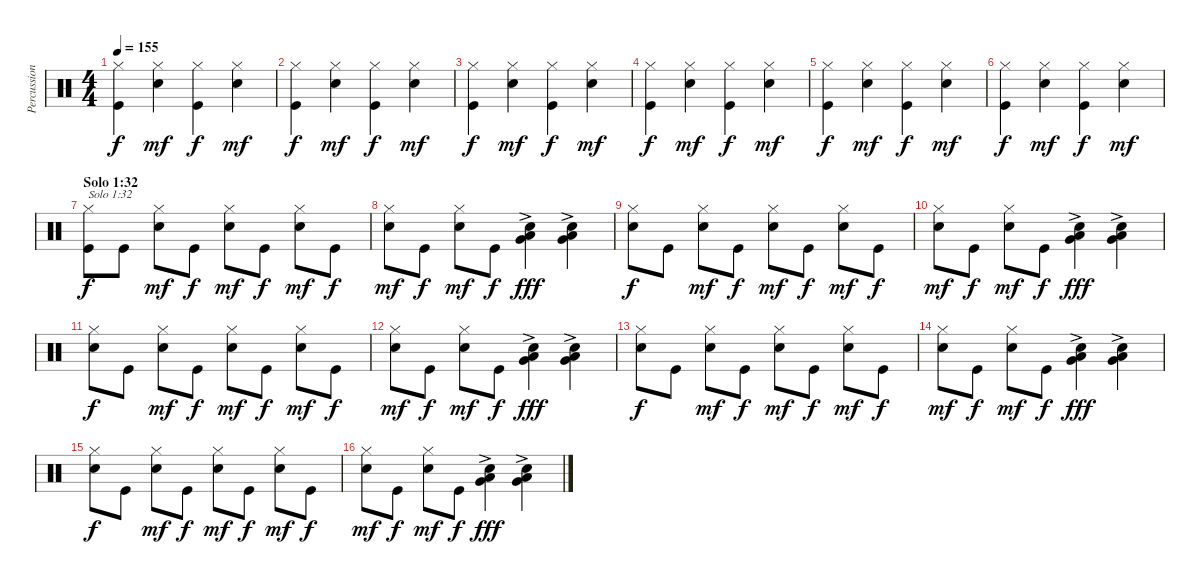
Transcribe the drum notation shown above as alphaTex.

\track ("Percussion" "Percussion") {instrument percussion}
\staff {score}
\articulation defaults
\ts (4 4)
\tempo 155
\clef neutral
\ks c
("Kick (hit)" "Hi-Hat (closed)").4{dy f} ("Electric Snare (hit)" "Hi-Hat (closed)").4{dy mf} ("Kick (hit)" "Hi-Hat (closed)").4{dy f} ("Electric Snare (hit)" "Hi-Hat (closed)").4{dy mf} |
("Kick (hit)" "Hi-Hat (closed)").4{dy f} ("Electric Snare (hit)" "Hi-Hat (closed)").4{dy mf} ("Kick (hit)" "Hi-Hat (closed)").4{dy f} ("Electric Snare (hit)" "Hi-Hat (closed)").4{dy mf} |
("Kick (hit)" "Hi-Hat (closed)").4{dy f} ("Electric Snare (hit)" "Hi-Hat (closed)").4{dy mf} ("Kick (hit)" "Hi-Hat (closed)").4{dy f} ("Electric Snare (hit)" "Hi-Hat (closed)").4{dy mf} |
("Kick (hit)" "Hi-Hat (closed)").4{dy f} ("Electric Snare (hit)" "Hi-Hat (closed)").4{dy mf} ("Kick (hit)" "Hi-Hat (closed)").4{dy f} ("Electric Snare (hit)" "Hi-Hat (closed)").4{dy mf} |
("Kick (hit)" "Hi-Hat (closed)").4{dy f} ("Electric Snare (hit)" "Hi-Hat (closed)").4{dy mf} ("Kick (hit)" "Hi-Hat (closed)").4{dy f} ("Electric Snare (hit)" "Hi-Hat (closed)").4{dy mf} |
("Kick (hit)" "Hi-Hat (closed)").4{dy f} ("Electric Snare (hit)" "Hi-Hat (closed)").4{dy mf} ("Kick (hit)" "Hi-Hat (closed)").4{dy f} ("Electric Snare (hit)" "Hi-Hat (closed)").4{dy mf} |
\section ("" "Solo 1:32")
("Kick (hit)" "Hi-Hat (closed)").8{txt "Solo 1:32" dy f} "Kick (hit)".8 ("Electric Snare (hit)" "Hi-Hat (closed)").8{dy mf} "Kick (hit)".8{dy f} ("Electric Snare (hit)" "Hi-Hat (closed)").8{dy mf} "Kick (hit)".8{dy f} ("Electric Snare (hit)" "Hi-Hat (closed)").8{dy mf} "Kick (hit)".8{dy f} |
("Electric Snare (hit)" "Hi-Hat (closed)").8{dy mf} "Kick (hit)".8{dy f} ("Electric Snare (hit)" "Hi-Hat (closed)").8{dy mf} "Kick (hit)".8{dy f} ("Very Low Tom (hit)"{ac} "Low Tom (hit)"{ac} "Electric Snare (hit)").4{dy fff} ("Very Low Tom (hit)"{ac} "Low Tom (hit)"{ac} "Electric Snare (hit)").4 |
("Electric Snare (hit)" "Hi-Hat (closed)").8{dy f} "Kick (hit)".8 ("Electric Snare (hit)" "Hi-Hat (closed)").8{dy mf} "Kick (hit)".8{dy f} ("Electric Snare (hit)" "Hi-Hat (closed)").8{dy mf} "Kick (hit)".8{dy f} ("Electric Snare (hit)" "Hi-Hat (closed)").8{dy mf} "Kick (hit)".8{dy f} |
("Electric Snare (hit)" "Hi-Hat (closed)").8{dy mf} "Kick (hit)".8{dy f} ("Electric Snare (hit)" "Hi-Hat (closed)").8{dy mf} "Kick (hit)".8{dy f} ("Very Low Tom (hit)"{ac} "Low Tom (hit)"{ac} "Electric Snare (hit)").4{dy fff} ("Very Low Tom (hit)"{ac} "Low Tom (hit)"{ac} "Electric Snare (hit)").4 |
("Electric Snare (hit)" "Hi-Hat (closed)").8{dy f} "Kick (hit)".8 ("Electric Snare (hit)" "Hi-Hat (closed)").8{dy mf} "Kick (hit)".8{dy f} ("Electric Snare (hit)" "Hi-Hat (closed)").8{dy mf} "Kick (hit)".8{dy f} ("Electric Snare (hit)" "Hi-Hat (closed)").8{dy mf} "Kick (hit)".8{dy f} |
("Electric Snare (hit)" "Hi-Hat (closed)").8{dy mf} "Kick (hit)".8{dy f} ("Electric Snare (hit)" "Hi-Hat (closed)").8{dy mf} "Kick (hit)".8{dy f} ("Very Low Tom (hit)"{ac} "Low Tom (hit)"{ac} "Electric Snare (hit)").4{dy fff} ("Very Low Tom (hit)"{ac} "Low Tom (hit)"{ac} "Electric Snare (hit)").4 |
("Electric Snare (hit)" "Hi-Hat (closed)").8{dy f} "Kick (hit)".8 ("Electric Snare (hit)" "Hi-Hat (closed)").8{dy mf} "Kick (hit)".8{dy f} ("Electric Snare (hit)" "Hi-Hat (closed)").8{dy mf} "Kick (hit)".8{dy f} ("Electric Snare (hit)" "Hi-Hat (closed)").8{dy mf} "Kick (hit)".8{dy f} |
("Electric Snare (hit)" "Hi-Hat (closed)").8{dy mf} "Kick (hit)".8{dy f} ("Electric Snare (hit)" "Hi-Hat (closed)").8{dy mf} "Kick (hit)".8{dy f} ("Very Low Tom (hit)"{ac} "Low Tom (hit)"{ac} "Electric Snare (hit)").4{dy fff} ("Very Low Tom (hit)"{ac} "Low Tom (hit)"{ac} "Electric Snare (hit)").4 |
("Electric Snare (hit)" "Hi-Hat (closed)").8{dy f} "Kick (hit)".8 ("Electric Snare (hit)" "Hi-Hat (closed)").8{dy mf} "Kick (hit)".8{dy f} ("Electric Snare (hit)" "Hi-Hat (closed)").8{dy mf} "Kick (hit)".8{dy f} ("Electric Snare (hit)" "Hi-Hat (closed)").8{dy mf} "Kick (hit)".8{dy f} |
("Electric Snare (hit)" "Hi-Hat (closed)").8{dy mf} "Kick (hit)".8{dy f} ("Electric Snare (hit)" "Hi-Hat (closed)").8{dy mf} "Kick (hit)".8{dy f} ("Very Low Tom (hit)"{ac} "Low Tom (hit)"{ac} "Electric Snare (hit)").4{dy fff} ("Very Low Tom (hit)"{ac} "Low Tom (hit)"{ac} "Electric Snare (hit)").4
